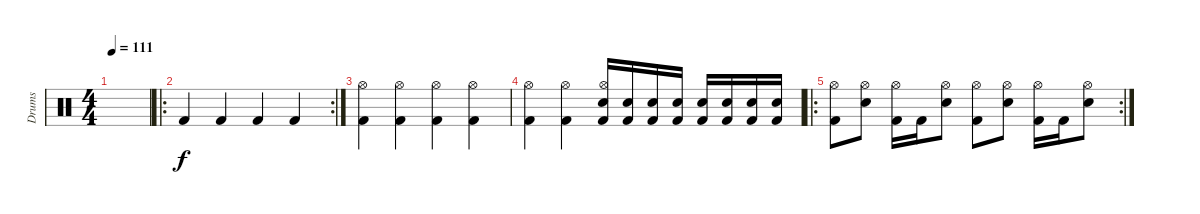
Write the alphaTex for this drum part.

\track ("Drums" "Drums") {instrument percussion}
\staff
\articulation defaults
\ts (4 4)
\tempo 111
\clef neutral
\ks c
|
\ro
\rc 2 "Kick (hit) 2".4 "Kick (hit) 2".4 "Kick (hit) 2".4 "Kick (hit) 2".4
|
("Hi-Hat (open)" "Kick (hit) 2").4 ("Hi-Hat (open)" "Kick (hit) 2").4 ("Hi-Hat (open)" "Kick (hit) 2").4 ("Hi-Hat (open)" "Kick (hit) 2").4 |
("Hi-Hat (open)" "Kick (hit) 2").4 ("Hi-Hat (open)" "Kick (hit) 2").4 ("Hi-Hat (open)" "Electric Snare (hit)" "Kick (hit) 2").16 ("Electric Snare (hit)" "Kick (hit) 2").16 ("Electric Snare (hit)" "Kick (hit) 2").16 ("Electric Snare (hit)" "Kick (hit) 2").16 ("Electric Snare (hit)" "Kick (hit) 2").16 ("Electric Snare (hit)" "Kick (hit) 2").16 ("Electric Snare (hit)" "Kick (hit) 2").16 ("Electric Snare (hit)" "Kick (hit) 2").16 |
\ro
\rc 2
("Hi-Hat (open)" "Kick (hit) 2").8 ("Hi-Hat (open)" "Electric Snare (hit)").8 ("Hi-Hat (open)" "Kick (hit) 2").16 "Kick (hit) 2".16 ("Hi-Hat (open)" "Electric Snare (hit)").8 ("Hi-Hat (open)" "Kick (hit) 2").8 ("Hi-Hat (open)" "Electric Snare (hit)").8 ("Hi-Hat (open)" "Kick (hit) 2").16 "Kick (hit) 2".16 ("Hi-Hat (open)" "Electric Snare (hit)").8
